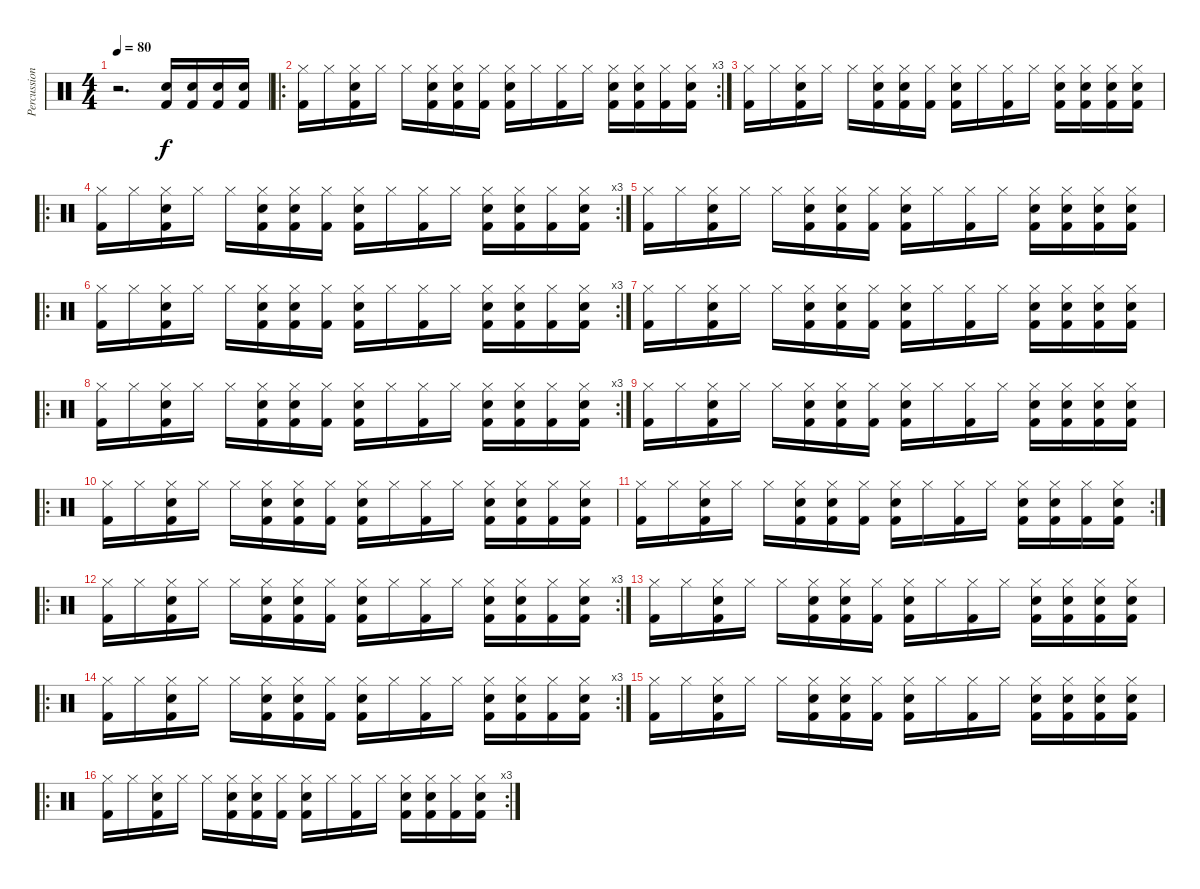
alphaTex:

\track ("Percussions" "Percussion") {instrument percussion}
\staff {score}
\articulation defaults
\ts (4 4)
\tempo 80
\clef neutral
\ks c
r.2{d dy f} ("Kick (hit) 2" "Electric Snare (hit)").16 ("Kick (hit) 2" "Electric Snare (hit)").16 ("Kick (hit) 2" "Electric Snare (hit)").16 ("Kick (hit) 2" "Electric Snare (hit)").16 |
\ro
\rc 3
("Hi-Hat (closed)" "Kick (hit) 2").16 "Hi-Hat (closed)".16 ("Hi-Hat (closed)" "Kick (hit) 2" "Electric Snare (hit)").16 "Hi-Hat (closed)".16 "Hi-Hat (closed)".16 ("Hi-Hat (closed)" "Kick (hit) 2" "Electric Snare (hit)").16 ("Hi-Hat (closed)" "Kick (hit) 2" "Electric Snare (hit)").16 ("Hi-Hat (closed)" "Kick (hit) 2").16 ("Hi-Hat (closed)" "Kick (hit) 2" "Electric Snare (hit)").16 "Hi-Hat (closed)".16 ("Hi-Hat (closed)" "Kick (hit) 2").16 "Hi-Hat (closed)".16 ("Hi-Hat (closed)" "Kick (hit) 2" "Electric Snare (hit)").16 ("Hi-Hat (closed)" "Kick (hit) 2" "Electric Snare (hit)").16 ("Hi-Hat (closed)" "Kick (hit) 2").16 ("Hi-Hat (closed)" "Kick (hit) 2" "Electric Snare (hit)").16 |
("Hi-Hat (closed)" "Kick (hit) 2").16 "Hi-Hat (closed)".16 ("Hi-Hat (closed)" "Kick (hit) 2" "Electric Snare (hit)").16 "Hi-Hat (closed)".16 "Hi-Hat (closed)".16 ("Hi-Hat (closed)" "Kick (hit) 2" "Electric Snare (hit)").16 ("Hi-Hat (closed)" "Kick (hit) 2" "Electric Snare (hit)").16 ("Hi-Hat (closed)" "Kick (hit) 2").16 ("Hi-Hat (closed)" "Kick (hit) 2" "Electric Snare (hit)").16 "Hi-Hat (closed)".16 ("Hi-Hat (closed)" "Kick (hit) 2").16 "Hi-Hat (closed)".16 ("Hi-Hat (closed)" "Kick (hit) 2" "Electric Snare (hit)").16 ("Hi-Hat (closed)" "Kick (hit) 2" "Electric Snare (hit)").16 ("Hi-Hat (closed)" "Kick (hit) 2" "Electric Snare (hit)").16 ("Hi-Hat (closed)" "Kick (hit) 2" "Electric Snare (hit)").16 |
\ro
\rc 3
("Hi-Hat (closed)" "Kick (hit) 2").16 "Hi-Hat (closed)".16 ("Hi-Hat (closed)" "Kick (hit) 2" "Electric Snare (hit)").16 "Hi-Hat (closed)".16 "Hi-Hat (closed)".16 ("Hi-Hat (closed)" "Kick (hit) 2" "Electric Snare (hit)").16 ("Hi-Hat (closed)" "Kick (hit) 2" "Electric Snare (hit)").16 ("Hi-Hat (closed)" "Kick (hit) 2").16 ("Hi-Hat (closed)" "Kick (hit) 2" "Electric Snare (hit)").16 "Hi-Hat (closed)".16 ("Hi-Hat (closed)" "Kick (hit) 2").16 "Hi-Hat (closed)".16 ("Hi-Hat (closed)" "Kick (hit) 2" "Electric Snare (hit)").16 ("Hi-Hat (closed)" "Kick (hit) 2" "Electric Snare (hit)").16 ("Hi-Hat (closed)" "Kick (hit) 2").16 ("Hi-Hat (closed)" "Kick (hit) 2" "Electric Snare (hit)").16 |
("Hi-Hat (closed)" "Kick (hit) 2").16 "Hi-Hat (closed)".16 ("Hi-Hat (closed)" "Kick (hit) 2" "Electric Snare (hit)").16 "Hi-Hat (closed)".16 "Hi-Hat (closed)".16 ("Hi-Hat (closed)" "Kick (hit) 2" "Electric Snare (hit)").16 ("Hi-Hat (closed)" "Kick (hit) 2" "Electric Snare (hit)").16 ("Hi-Hat (closed)" "Kick (hit) 2").16 ("Hi-Hat (closed)" "Kick (hit) 2" "Electric Snare (hit)").16 "Hi-Hat (closed)".16 ("Hi-Hat (closed)" "Kick (hit) 2").16 "Hi-Hat (closed)".16 ("Hi-Hat (closed)" "Kick (hit) 2" "Electric Snare (hit)").16 ("Hi-Hat (closed)" "Kick (hit) 2" "Electric Snare (hit)").16 ("Hi-Hat (closed)" "Kick (hit) 2" "Electric Snare (hit)").16 ("Hi-Hat (closed)" "Kick (hit) 2" "Electric Snare (hit)").16 |
\ro
\rc 3
("Hi-Hat (closed)" "Kick (hit) 2").16 "Hi-Hat (closed)".16 ("Hi-Hat (closed)" "Kick (hit) 2" "Electric Snare (hit)").16 "Hi-Hat (closed)".16 "Hi-Hat (closed)".16 ("Hi-Hat (closed)" "Kick (hit) 2" "Electric Snare (hit)").16 ("Hi-Hat (closed)" "Kick (hit) 2" "Electric Snare (hit)").16 ("Hi-Hat (closed)" "Kick (hit) 2").16 ("Hi-Hat (closed)" "Kick (hit) 2" "Electric Snare (hit)").16 "Hi-Hat (closed)".16 ("Hi-Hat (closed)" "Kick (hit) 2").16 "Hi-Hat (closed)".16 ("Hi-Hat (closed)" "Kick (hit) 2" "Electric Snare (hit)").16 ("Hi-Hat (closed)" "Kick (hit) 2" "Electric Snare (hit)").16 ("Hi-Hat (closed)" "Kick (hit) 2").16 ("Hi-Hat (closed)" "Kick (hit) 2" "Electric Snare (hit)").16 |
("Hi-Hat (closed)" "Kick (hit) 2").16 "Hi-Hat (closed)".16 ("Hi-Hat (closed)" "Kick (hit) 2" "Electric Snare (hit)").16 "Hi-Hat (closed)".16 "Hi-Hat (closed)".16 ("Hi-Hat (closed)" "Kick (hit) 2" "Electric Snare (hit)").16 ("Hi-Hat (closed)" "Kick (hit) 2" "Electric Snare (hit)").16 ("Hi-Hat (closed)" "Kick (hit) 2").16 ("Hi-Hat (closed)" "Kick (hit) 2" "Electric Snare (hit)").16 "Hi-Hat (closed)".16 ("Hi-Hat (closed)" "Kick (hit) 2").16 "Hi-Hat (closed)".16 ("Hi-Hat (closed)" "Kick (hit) 2" "Electric Snare (hit)").16 ("Hi-Hat (closed)" "Kick (hit) 2" "Electric Snare (hit)").16 ("Hi-Hat (closed)" "Kick (hit) 2" "Electric Snare (hit)").16 ("Hi-Hat (closed)" "Kick (hit) 2" "Electric Snare (hit)").16 |
\ro
\rc 3
("Hi-Hat (closed)" "Kick (hit) 2").16 "Hi-Hat (closed)".16 ("Hi-Hat (closed)" "Kick (hit) 2" "Electric Snare (hit)").16 "Hi-Hat (closed)".16 "Hi-Hat (closed)".16 ("Hi-Hat (closed)" "Kick (hit) 2" "Electric Snare (hit)").16 ("Hi-Hat (closed)" "Kick (hit) 2" "Electric Snare (hit)").16 ("Hi-Hat (closed)" "Kick (hit) 2").16 ("Hi-Hat (closed)" "Kick (hit) 2" "Electric Snare (hit)").16 "Hi-Hat (closed)".16 ("Hi-Hat (closed)" "Kick (hit) 2").16 "Hi-Hat (closed)".16 ("Hi-Hat (closed)" "Kick (hit) 2" "Electric Snare (hit)").16 ("Hi-Hat (closed)" "Kick (hit) 2" "Electric Snare (hit)").16 ("Hi-Hat (closed)" "Kick (hit) 2").16 ("Hi-Hat (closed)" "Kick (hit) 2" "Electric Snare (hit)").16 |
("Hi-Hat (closed)" "Kick (hit) 2").16 "Hi-Hat (closed)".16 ("Hi-Hat (closed)" "Kick (hit) 2" "Electric Snare (hit)").16 "Hi-Hat (closed)".16 "Hi-Hat (closed)".16 ("Hi-Hat (closed)" "Kick (hit) 2" "Electric Snare (hit)").16 ("Hi-Hat (closed)" "Kick (hit) 2" "Electric Snare (hit)").16 ("Hi-Hat (closed)" "Kick (hit) 2").16 ("Hi-Hat (closed)" "Kick (hit) 2" "Electric Snare (hit)").16 "Hi-Hat (closed)".16 ("Hi-Hat (closed)" "Kick (hit) 2").16 "Hi-Hat (closed)".16 ("Hi-Hat (closed)" "Kick (hit) 2" "Electric Snare (hit)").16 ("Hi-Hat (closed)" "Kick (hit) 2" "Electric Snare (hit)").16 ("Hi-Hat (closed)" "Kick (hit) 2" "Electric Snare (hit)").16 ("Hi-Hat (closed)" "Kick (hit) 2" "Electric Snare (hit)").16 |
\ro
("Hi-Hat (closed)" "Kick (hit) 2").16 "Hi-Hat (closed)".16 ("Hi-Hat (closed)" "Kick (hit) 2" "Electric Snare (hit)").16 "Hi-Hat (closed)".16 "Hi-Hat (closed)".16 ("Hi-Hat (closed)" "Kick (hit) 2" "Electric Snare (hit)").16 ("Hi-Hat (closed)" "Kick (hit) 2" "Electric Snare (hit)").16 ("Hi-Hat (closed)" "Kick (hit) 2").16 ("Hi-Hat (closed)" "Kick (hit) 2" "Electric Snare (hit)").16 "Hi-Hat (closed)".16 ("Hi-Hat (closed)" "Kick (hit) 2").16 "Hi-Hat (closed)".16 ("Hi-Hat (closed)" "Kick (hit) 2" "Electric Snare (hit)").16 ("Hi-Hat (closed)" "Kick (hit) 2" "Electric Snare (hit)").16 ("Hi-Hat (closed)" "Kick (hit) 2").16 ("Hi-Hat (closed)" "Kick (hit) 2" "Electric Snare (hit)").16 |
\rc 2
("Hi-Hat (closed)" "Kick (hit) 2").16 "Hi-Hat (closed)".16 ("Hi-Hat (closed)" "Kick (hit) 2" "Electric Snare (hit)").16 "Hi-Hat (closed)".16 "Hi-Hat (closed)".16 ("Hi-Hat (closed)" "Kick (hit) 2" "Electric Snare (hit)").16 ("Hi-Hat (closed)" "Kick (hit) 2" "Electric Snare (hit)").16 ("Hi-Hat (closed)" "Kick (hit) 2").16 ("Hi-Hat (closed)" "Kick (hit) 2" "Electric Snare (hit)").16 "Hi-Hat (closed)".16 ("Hi-Hat (closed)" "Kick (hit) 2").16 "Hi-Hat (closed)".16 ("Hi-Hat (closed)" "Kick (hit) 2" "Electric Snare (hit)").16 ("Hi-Hat (closed)" "Kick (hit) 2" "Electric Snare (hit)").16 ("Hi-Hat (closed)" "Kick (hit) 2").16 ("Hi-Hat (closed)" "Kick (hit) 2" "Electric Snare (hit)").16 |
\ro
\rc 3
("Hi-Hat (closed)" "Kick (hit) 2").16 "Hi-Hat (closed)".16 ("Hi-Hat (closed)" "Kick (hit) 2" "Electric Snare (hit)").16 "Hi-Hat (closed)".16 "Hi-Hat (closed)".16 ("Hi-Hat (closed)" "Kick (hit) 2" "Electric Snare (hit)").16 ("Hi-Hat (closed)" "Kick (hit) 2" "Electric Snare (hit)").16 ("Hi-Hat (closed)" "Kick (hit) 2").16 ("Hi-Hat (closed)" "Kick (hit) 2" "Electric Snare (hit)").16 "Hi-Hat (closed)".16 ("Hi-Hat (closed)" "Kick (hit) 2").16 "Hi-Hat (closed)".16 ("Hi-Hat (closed)" "Kick (hit) 2" "Electric Snare (hit)").16 ("Hi-Hat (closed)" "Kick (hit) 2" "Electric Snare (hit)").16 ("Hi-Hat (closed)" "Kick (hit) 2").16 ("Hi-Hat (closed)" "Kick (hit) 2" "Electric Snare (hit)").16 |
("Hi-Hat (closed)" "Kick (hit) 2").16 "Hi-Hat (closed)".16 ("Hi-Hat (closed)" "Kick (hit) 2" "Electric Snare (hit)").16 "Hi-Hat (closed)".16 "Hi-Hat (closed)".16 ("Hi-Hat (closed)" "Kick (hit) 2" "Electric Snare (hit)").16 ("Hi-Hat (closed)" "Kick (hit) 2" "Electric Snare (hit)").16 ("Hi-Hat (closed)" "Kick (hit) 2").16 ("Hi-Hat (closed)" "Kick (hit) 2" "Electric Snare (hit)").16 "Hi-Hat (closed)".16 ("Hi-Hat (closed)" "Kick (hit) 2").16 "Hi-Hat (closed)".16 ("Hi-Hat (closed)" "Kick (hit) 2" "Electric Snare (hit)").16 ("Hi-Hat (closed)" "Kick (hit) 2" "Electric Snare (hit)").16 ("Hi-Hat (closed)" "Kick (hit) 2" "Electric Snare (hit)").16 ("Hi-Hat (closed)" "Kick (hit) 2" "Electric Snare (hit)").16 |
\ro
\rc 3
("Hi-Hat (closed)" "Kick (hit) 2").16 "Hi-Hat (closed)".16 ("Hi-Hat (closed)" "Kick (hit) 2" "Electric Snare (hit)").16 "Hi-Hat (closed)".16 "Hi-Hat (closed)".16 ("Hi-Hat (closed)" "Kick (hit) 2" "Electric Snare (hit)").16 ("Hi-Hat (closed)" "Kick (hit) 2" "Electric Snare (hit)").16 ("Hi-Hat (closed)" "Kick (hit) 2").16 ("Hi-Hat (closed)" "Kick (hit) 2" "Electric Snare (hit)").16 "Hi-Hat (closed)".16 ("Hi-Hat (closed)" "Kick (hit) 2").16 "Hi-Hat (closed)".16 ("Hi-Hat (closed)" "Kick (hit) 2" "Electric Snare (hit)").16 ("Hi-Hat (closed)" "Kick (hit) 2" "Electric Snare (hit)").16 ("Hi-Hat (closed)" "Kick (hit) 2").16 ("Hi-Hat (closed)" "Kick (hit) 2" "Electric Snare (hit)").16 |
("Hi-Hat (closed)" "Kick (hit) 2").16 "Hi-Hat (closed)".16 ("Hi-Hat (closed)" "Kick (hit) 2" "Electric Snare (hit)").16 "Hi-Hat (closed)".16 "Hi-Hat (closed)".16 ("Hi-Hat (closed)" "Kick (hit) 2" "Electric Snare (hit)").16 ("Hi-Hat (closed)" "Kick (hit) 2" "Electric Snare (hit)").16 ("Hi-Hat (closed)" "Kick (hit) 2").16 ("Hi-Hat (closed)" "Kick (hit) 2" "Electric Snare (hit)").16 "Hi-Hat (closed)".16 ("Hi-Hat (closed)" "Kick (hit) 2").16 "Hi-Hat (closed)".16 ("Hi-Hat (closed)" "Kick (hit) 2" "Electric Snare (hit)").16 ("Hi-Hat (closed)" "Kick (hit) 2" "Electric Snare (hit)").16 ("Hi-Hat (closed)" "Kick (hit) 2" "Electric Snare (hit)").16 ("Hi-Hat (closed)" "Kick (hit) 2" "Electric Snare (hit)").16 |
\ro
\rc 3
("Hi-Hat (closed)" "Kick (hit) 2").16 "Hi-Hat (closed)".16 ("Hi-Hat (closed)" "Kick (hit) 2" "Electric Snare (hit)").16 "Hi-Hat (closed)".16 "Hi-Hat (closed)".16 ("Hi-Hat (closed)" "Kick (hit) 2" "Electric Snare (hit)").16 ("Hi-Hat (closed)" "Kick (hit) 2" "Electric Snare (hit)").16 ("Hi-Hat (closed)" "Kick (hit) 2").16 ("Hi-Hat (closed)" "Kick (hit) 2" "Electric Snare (hit)").16 "Hi-Hat (closed)".16 ("Hi-Hat (closed)" "Kick (hit) 2").16 "Hi-Hat (closed)".16 ("Hi-Hat (closed)" "Kick (hit) 2" "Electric Snare (hit)").16 ("Hi-Hat (closed)" "Kick (hit) 2" "Electric Snare (hit)").16 ("Hi-Hat (closed)" "Kick (hit) 2").16 ("Hi-Hat (closed)" "Kick (hit) 2" "Electric Snare (hit)").16
